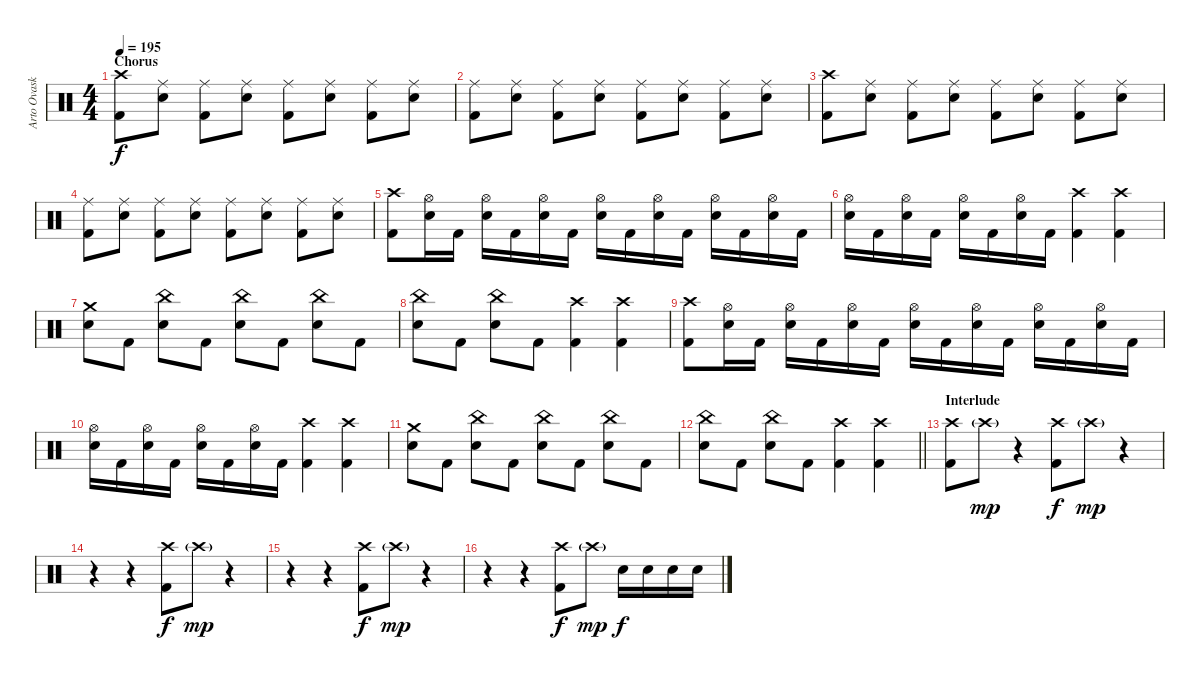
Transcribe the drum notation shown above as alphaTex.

\track ("Arto Ovaskainen" "Arto Ovask") {instrument percussion}
\staff {score}
\articulation defaults
\ts (4 4)
\section ("" "Chorus")
\tempo 195
\clef neutral
\ks c
("Crash high (hit)" "Kick (hit) 2").8{dy f} ("Ride (middle)" "Electric Snare (hit)").8 ("Ride (middle)" "Kick (hit) 2").8 ("Ride (middle)" "Electric Snare (hit)").8 ("Ride (middle)" "Kick (hit) 2").8 ("Ride (middle)" "Electric Snare (hit)").8 ("Ride (middle)" "Kick (hit) 2").8 ("Ride (middle)" "Electric Snare (hit)").8 |
("Ride (middle)" "Kick (hit) 2").8 ("Ride (middle)" "Electric Snare (hit)").8 ("Ride (middle)" "Kick (hit) 2").8 ("Ride (middle)" "Electric Snare (hit)").8 ("Ride (middle)" "Kick (hit) 2").8 ("Ride (middle)" "Electric Snare (hit)").8 ("Ride (middle)" "Kick (hit) 2").8 ("Ride (middle)" "Electric Snare (hit)").8 |
("Crash high (hit)" "Kick (hit) 2").8 ("Ride (middle)" "Electric Snare (hit)").8 ("Ride (middle)" "Kick (hit) 2").8 ("Ride (middle)" "Electric Snare (hit)").8 ("Ride (middle)" "Kick (hit) 2").8 ("Ride (middle)" "Electric Snare (hit)").8 ("Ride (middle)" "Kick (hit) 2").8 ("Ride (middle)" "Electric Snare (hit)").8 |
("Ride (middle)" "Kick (hit) 2").8 ("Ride (middle)" "Electric Snare (hit)").8 ("Ride (middle)" "Kick (hit) 2").8 ("Ride (middle)" "Electric Snare (hit)").8 ("Ride (middle)" "Kick (hit) 2").8 ("Ride (middle)" "Electric Snare (hit)").8 ("Ride (middle)" "Kick (hit) 2").8 ("Ride (middle)" "Electric Snare (hit)").8 |
("Crash high (hit)" "Kick (hit) 2").8 ("Hi-Hat (open)" "Electric Snare (hit)").16 "Kick (hit) 2".16 ("Hi-Hat (open)" "Electric Snare (hit)").16 "Kick (hit) 2".16 ("Hi-Hat (open)" "Electric Snare (hit)").16 "Kick (hit) 2".16 ("Hi-Hat (open)" "Electric Snare (hit)").16 "Kick (hit) 2".16 ("Hi-Hat (open)" "Electric Snare (hit)").16 "Kick (hit) 2".16 ("Hi-Hat (open)" "Electric Snare (hit)").16 "Kick (hit) 2".16 ("Hi-Hat (open)" "Electric Snare (hit)").16 "Kick (hit) 2".16 |
("Hi-Hat (open)" "Electric Snare (hit)").16 "Kick (hit) 2".16 ("Hi-Hat (open)" "Electric Snare (hit)").16 "Kick (hit) 2".16 ("Hi-Hat (open)" "Electric Snare (hit)").16 "Kick (hit) 2".16 ("Hi-Hat (open)" "Electric Snare (hit)").16 "Kick (hit) 2".16 ("Crash high (hit)" "Kick (hit) 2").4 ("Crash high (hit)" "Kick (hit) 2").4 |
("Crash medium (hit)" "Electric Snare (hit)").8 "Kick (hit) 2".8 ("China (hit)" "Electric Snare (hit)").8 "Kick (hit) 2".8 ("China (hit)" "Electric Snare (hit)").8 "Kick (hit) 2".8 ("China (hit)" "Electric Snare (hit)").8 "Kick (hit) 2".8 |
("China (hit)" "Electric Snare (hit)").8 "Kick (hit) 2".8 ("China (hit)" "Electric Snare (hit)").8 "Kick (hit) 2".8 ("Crash high (hit)" "Kick (hit) 2").4 ("Crash high (hit)" "Kick (hit) 2").4 |
("Crash high (hit)" "Kick (hit) 2").8 ("Hi-Hat (open)" "Electric Snare (hit)").16 "Kick (hit) 2".16 ("Hi-Hat (open)" "Electric Snare (hit)").16 "Kick (hit) 2".16 ("Hi-Hat (open)" "Electric Snare (hit)").16 "Kick (hit) 2".16 ("Hi-Hat (open)" "Electric Snare (hit)").16 "Kick (hit) 2".16 ("Hi-Hat (open)" "Electric Snare (hit)").16 "Kick (hit) 2".16 ("Hi-Hat (open)" "Electric Snare (hit)").16 "Kick (hit) 2".16 ("Hi-Hat (open)" "Electric Snare (hit)").16 "Kick (hit) 2".16 |
("Hi-Hat (open)" "Electric Snare (hit)").16 "Kick (hit) 2".16 ("Hi-Hat (open)" "Electric Snare (hit)").16 "Kick (hit) 2".16 ("Hi-Hat (open)" "Electric Snare (hit)").16 "Kick (hit) 2".16 ("Hi-Hat (open)" "Electric Snare (hit)").16 "Kick (hit) 2".16 ("Crash high (hit)" "Kick (hit) 2").4 ("Crash high (hit)" "Kick (hit) 2").4 |
("Crash medium (hit)" "Electric Snare (hit)").8 "Kick (hit) 2".8 ("China (hit)" "Electric Snare (hit)").8 "Kick (hit) 2".8 ("China (hit)" "Electric Snare (hit)").8 "Kick (hit) 2".8 ("China (hit)" "Electric Snare (hit)").8 "Kick (hit) 2".8 |
\barLineRight lightlight
("China (hit)" "Electric Snare (hit)").8 "Kick (hit) 2".8 ("China (hit)" "Electric Snare (hit)").8 "Kick (hit) 2".8 ("Crash high (hit)" "Kick (hit) 2").4 ("Crash high (hit)" "Kick (hit) 2").4 |
\section ("" "Interlude")
("Crash high (hit)" "Kick (hit) 2").8 "Crash high (hit)"{g}.8{dy mp} r.4 ("Crash high (hit)" "Kick (hit) 2").8{dy f} "Crash high (hit)"{g}.8{dy mp} r.4 |
r.4 r.4 ("Crash high (hit)" "Kick (hit) 2").8{dy f} "Crash high (hit)"{g}.8{dy mp} r.4 |
r.4 r.4 ("Crash high (hit)" "Kick (hit) 2").8{dy f} "Crash high (hit)"{g}.8{dy mp} r.4 |
r.4 r.4 ("Crash high (hit)" "Kick (hit) 2").8{dy f} "Crash high (hit)"{g}.8{dy mp} "Electric Snare (hit)".16{dy f} "Electric Snare (hit)".16 "Electric Snare (hit)".16 "Electric Snare (hit)".16
